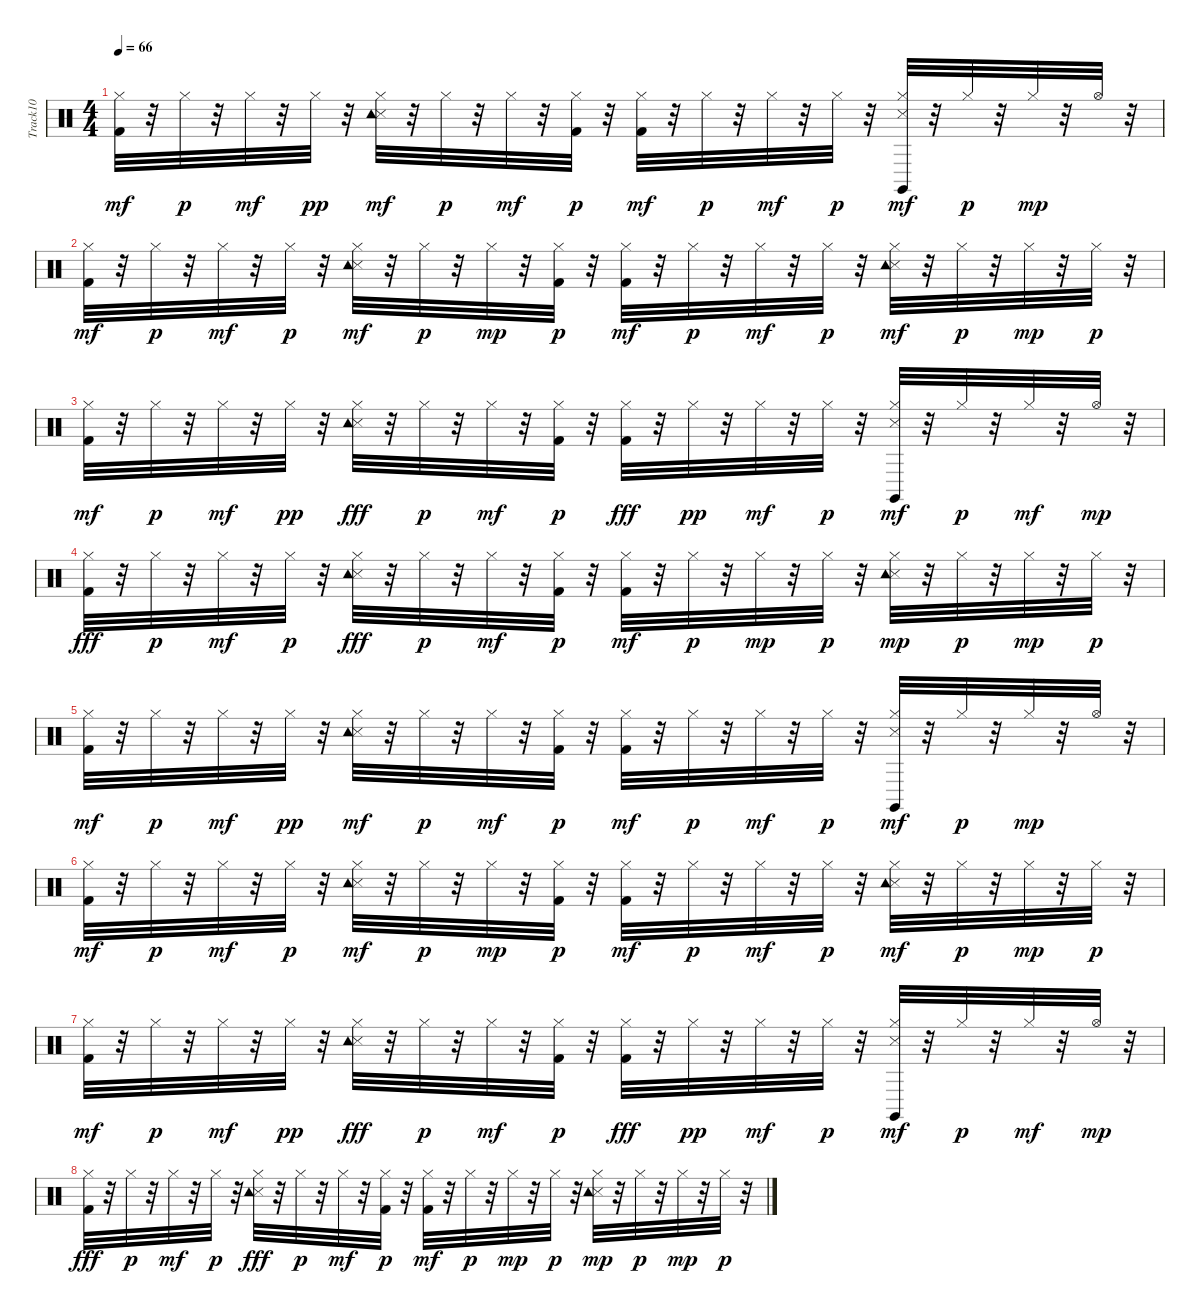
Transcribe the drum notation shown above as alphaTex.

\track ("Track10" "Track10") {instrument percussion}
\staff {score}
\articulation defaults
\ts (4 4)
\tempo 66
\clef neutral
\ks c
("Kick (hit) 2" "Hi-Hat (closed)").32{dy mf} r.32 "Hi-Hat (closed)".32{dy p} r.32 "Hi-Hat (closed)".32{dy mf} r.32 "Hi-Hat (closed)".32{dy pp} r.32 ("Snare (side stick) 3" "Tambourine (hit)" "Hi-Hat (closed)").32{dy mf} r.32 "Hi-Hat (closed)".32{dy p} r.32 "Hi-Hat (closed)".32{dy mf} r.32 ("Kick (hit) 2" "Hi-Hat (closed)").32{dy p} r.32 ("Kick (hit) 2" "Hi-Hat (closed)").32{dy mf} r.32 "Hi-Hat (closed)".32{dy p} r.32 "Hi-Hat (closed)".32{dy mf} r.32 "Hi-Hat (closed)".32{dy p} r.32 ("Snare (side stick) 3" "Claves (hit)" "Hi-Hat (closed)").32{dy mf} r.32 "Hi-Hat (closed)".32{dy p} r.32 "Hi-Hat (closed)".32{dy mp} r.32 "Hi-Hat (open)".32 r.32 |
("Kick (hit) 2" "Hi-Hat (closed)").32{dy mf} r.32 "Hi-Hat (closed)".32{dy p} r.32 "Hi-Hat (closed)".32{dy mf} r.32 "Hi-Hat (closed)".32{dy p} r.32 ("Snare (side stick) 3" "Tambourine (hit)" "Hi-Hat (closed)").32{dy mf} r.32 "Hi-Hat (closed)".32{dy p} r.32 "Hi-Hat (closed)".32{dy mp} r.32 ("Kick (hit) 2" "Hi-Hat (closed)").32{dy p} r.32 ("Kick (hit) 2" "Hi-Hat (closed)").32{dy mf} r.32 "Hi-Hat (closed)".32{dy p} r.32 "Hi-Hat (closed)".32{dy mf} r.32 "Hi-Hat (closed)".32{dy p} r.32 ("Snare (side stick) 3" "Tambourine (hit)" "Hi-Hat (closed)").32{dy mf} r.32 "Hi-Hat (closed)".32{dy p} r.32 "Hi-Hat (closed)".32{dy mp} r.32 "Hi-Hat (closed)".32{dy p} r.32 |
("Kick (hit) 2" "Hi-Hat (closed)").32{dy mf} r.32 "Hi-Hat (closed)".32{dy p} r.32 "Hi-Hat (closed)".32{dy mf} r.32 "Hi-Hat (closed)".32{dy pp} r.32 ("Snare (side stick) 3" "Tambourine (hit)" "Hi-Hat (closed)").32{dy fff} r.32 "Hi-Hat (closed)".32{dy p} r.32 "Hi-Hat (closed)".32{dy mf} r.32 ("Kick (hit) 2" "Hi-Hat (closed)").32{dy p} r.32 ("Kick (hit) 2" "Hi-Hat (closed)").32{dy fff} r.32 "Hi-Hat (closed)".32{dy pp} r.32 "Hi-Hat (closed)".32{dy mf} r.32 "Hi-Hat (closed)".32{dy p} r.32 ("Snare (side stick) 3" "Claves (hit)" "Hi-Hat (closed)").32{dy mf} r.32 "Hi-Hat (closed)".32{dy p} r.32 "Hi-Hat (closed)".32{dy mf} r.32 "Hi-Hat (open)".32{dy mp} r.32 |
("Kick (hit) 2" "Hi-Hat (closed)").32{dy fff} r.32 "Hi-Hat (closed)".32{dy p} r.32 "Hi-Hat (closed)".32{dy mf} r.32 "Hi-Hat (closed)".32{dy p} r.32 ("Snare (side stick) 3" "Tambourine (hit)" "Hi-Hat (closed)").32{dy fff} r.32 "Hi-Hat (closed)".32{dy p} r.32 "Hi-Hat (closed)".32{dy mf} r.32 ("Kick (hit) 2" "Hi-Hat (closed)").32{dy p} r.32 ("Kick (hit) 2" "Hi-Hat (closed)").32{dy mf} r.32 "Hi-Hat (closed)".32{dy p} r.32 "Hi-Hat (closed)".32{dy mp} r.32 "Hi-Hat (closed)".32{dy p} r.32 ("Snare (side stick) 3" "Tambourine (hit)" "Hi-Hat (closed)").32{dy mp} r.32 "Hi-Hat (closed)".32{dy p} r.32 "Hi-Hat (closed)".32{dy mp} r.32 "Hi-Hat (closed)".32{dy p} r.32 |
("Kick (hit) 2" "Hi-Hat (closed)").32{dy mf} r.32 "Hi-Hat (closed)".32{dy p} r.32 "Hi-Hat (closed)".32{dy mf} r.32 "Hi-Hat (closed)".32{dy pp} r.32 ("Snare (side stick) 3" "Tambourine (hit)" "Hi-Hat (closed)").32{dy mf} r.32 "Hi-Hat (closed)".32{dy p} r.32 "Hi-Hat (closed)".32{dy mf} r.32 ("Kick (hit) 2" "Hi-Hat (closed)").32{dy p} r.32 ("Kick (hit) 2" "Hi-Hat (closed)").32{dy mf} r.32 "Hi-Hat (closed)".32{dy p} r.32 "Hi-Hat (closed)".32{dy mf} r.32 "Hi-Hat (closed)".32{dy p} r.32 ("Snare (side stick) 3" "Claves (hit)" "Hi-Hat (closed)").32{dy mf} r.32 "Hi-Hat (closed)".32{dy p} r.32 "Hi-Hat (closed)".32{dy mp} r.32 "Hi-Hat (open)".32 r.32 |
("Kick (hit) 2" "Hi-Hat (closed)").32{dy mf} r.32 "Hi-Hat (closed)".32{dy p} r.32 "Hi-Hat (closed)".32{dy mf} r.32 "Hi-Hat (closed)".32{dy p} r.32 ("Snare (side stick) 3" "Tambourine (hit)" "Hi-Hat (closed)").32{dy mf} r.32 "Hi-Hat (closed)".32{dy p} r.32 "Hi-Hat (closed)".32{dy mp} r.32 ("Kick (hit) 2" "Hi-Hat (closed)").32{dy p} r.32 ("Kick (hit) 2" "Hi-Hat (closed)").32{dy mf} r.32 "Hi-Hat (closed)".32{dy p} r.32 "Hi-Hat (closed)".32{dy mf} r.32 "Hi-Hat (closed)".32{dy p} r.32 ("Snare (side stick) 3" "Tambourine (hit)" "Hi-Hat (closed)").32{dy mf} r.32 "Hi-Hat (closed)".32{dy p} r.32 "Hi-Hat (closed)".32{dy mp} r.32 "Hi-Hat (closed)".32{dy p} r.32 |
("Kick (hit) 2" "Hi-Hat (closed)").32{dy mf} r.32 "Hi-Hat (closed)".32{dy p} r.32 "Hi-Hat (closed)".32{dy mf} r.32 "Hi-Hat (closed)".32{dy pp} r.32 ("Snare (side stick) 3" "Tambourine (hit)" "Hi-Hat (closed)").32{dy fff} r.32 "Hi-Hat (closed)".32{dy p} r.32 "Hi-Hat (closed)".32{dy mf} r.32 ("Kick (hit) 2" "Hi-Hat (closed)").32{dy p} r.32 ("Kick (hit) 2" "Hi-Hat (closed)").32{dy fff} r.32 "Hi-Hat (closed)".32{dy pp} r.32 "Hi-Hat (closed)".32{dy mf} r.32 "Hi-Hat (closed)".32{dy p} r.32 ("Snare (side stick) 3" "Claves (hit)" "Hi-Hat (closed)").32{dy mf} r.32 "Hi-Hat (closed)".32{dy p} r.32 "Hi-Hat (closed)".32{dy mf} r.32 "Hi-Hat (open)".32{dy mp} r.32 |
("Kick (hit) 2" "Hi-Hat (closed)").32{dy fff} r.32 "Hi-Hat (closed)".32{dy p} r.32 "Hi-Hat (closed)".32{dy mf} r.32 "Hi-Hat (closed)".32{dy p} r.32 ("Snare (side stick) 3" "Tambourine (hit)" "Hi-Hat (closed)").32{dy fff} r.32 "Hi-Hat (closed)".32{dy p} r.32 "Hi-Hat (closed)".32{dy mf} r.32 ("Kick (hit) 2" "Hi-Hat (closed)").32{dy p} r.32 ("Kick (hit) 2" "Hi-Hat (closed)").32{dy mf} r.32 "Hi-Hat (closed)".32{dy p} r.32 "Hi-Hat (closed)".32{dy mp} r.32 "Hi-Hat (closed)".32{dy p} r.32 ("Snare (side stick) 3" "Tambourine (hit)" "Hi-Hat (closed)").32{dy mp} r.32 "Hi-Hat (closed)".32{dy p} r.32 "Hi-Hat (closed)".32{dy mp} r.32 "Hi-Hat (closed)".32{dy p} r.32
